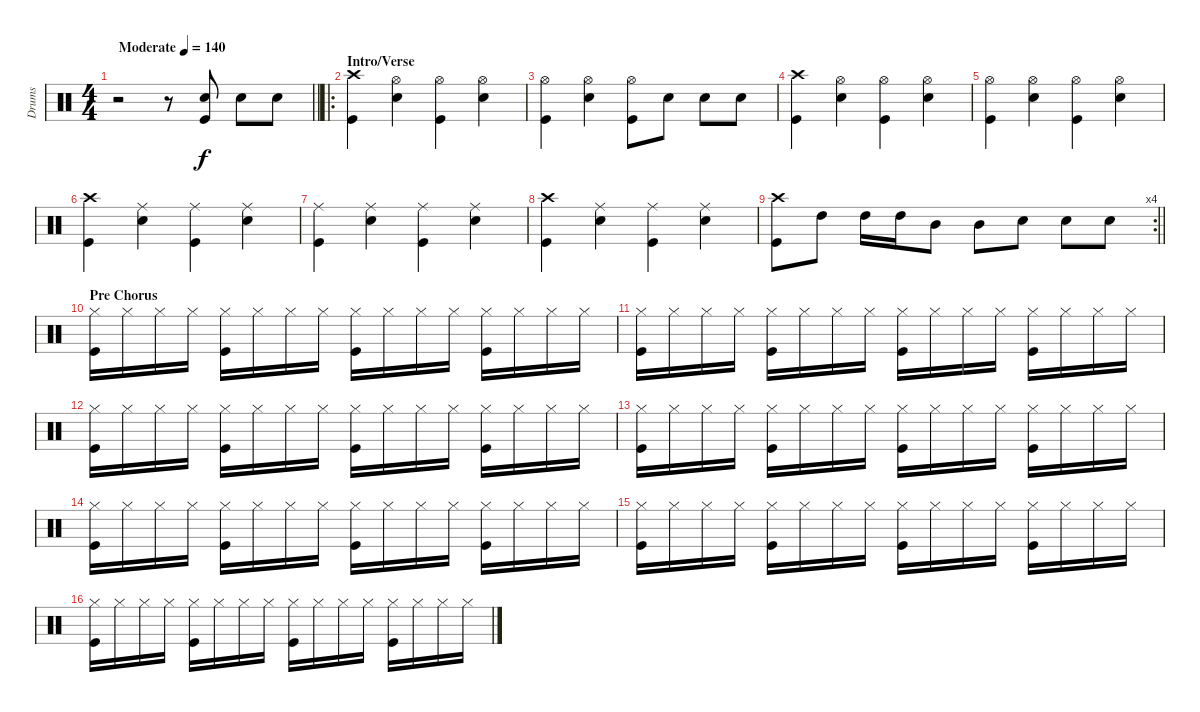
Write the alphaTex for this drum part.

\track ("Drums" "Drums") {instrument percussion}
\staff {score}
\articulation defaults
\ts (4 4)
\tempo (140 "Moderate")
\clef neutral
\barLineRight lightlight
\ks c
r.2{dy f} r.8 ("Snare (hit) 2" "Kick (hit)").8 "Snare (hit) 2".8 "Snare (hit) 2".8 |
\ro
\section ("" "Intro/Verse")
("Crash high (hit)" "Kick (hit)").4 ("Hi-Hat (open)" "Snare (hit) 2").4 ("Hi-Hat (open)" "Kick (hit)").4 ("Hi-Hat (open)" "Snare (hit) 2").4 |
("Hi-Hat (open)" "Kick (hit)").4 ("Hi-Hat (open)" "Snare (hit) 2").4 ("Hi-Hat (open)" "Kick (hit)").8 "Snare (hit) 2".8 "Snare (hit) 2".8 "Snare (hit) 2".8 |
("Crash high (hit)" "Kick (hit)").4 ("Hi-Hat (open)" "Snare (hit) 2").4 ("Hi-Hat (open)" "Kick (hit)").4 ("Hi-Hat (open)" "Snare (hit) 2").4 |
("Hi-Hat (open)" "Kick (hit)").4 ("Hi-Hat (open)" "Snare (hit) 2").4 ("Hi-Hat (open)" "Kick (hit)").4 ("Hi-Hat (open)" "Snare (hit) 2").4 |
("Crash high (hit)" "Kick (hit)").4 ("Ride (middle)" "Snare (hit) 2").4 ("Ride (middle)" "Kick (hit)").4 ("Ride (middle)" "Snare (hit) 2").4 |
("Ride (middle)" "Kick (hit)").4 ("Ride (middle)" "Snare (hit) 2").4 ("Ride (middle)" "Kick (hit)").4 ("Ride (middle)" "Snare (hit) 2").4 |
("Crash high (hit)" "Kick (hit)").4 ("Ride (middle)" "Snare (hit) 2").4 ("Ride (middle)" "Kick (hit)").4 ("Ride (middle)" "Snare (hit) 2").4 |
\rc 4
\barLineRight lightlight
("Crash high (hit)" "Kick (hit)").8 "High Tom (hit)".8 "High Tom (hit)".16 "High Tom (hit)".16 "Mid Tom (hit)".8 "Mid Tom (hit)".8 "Snare (hit) 2".8 "Snare (hit) 2".8 "Snare (hit) 2".8 |
\section ("" "Pre Chorus")
("Hi-Hat (closed)" "Kick (hit)").16 "Hi-Hat (closed)".16 "Hi-Hat (closed)".16 "Hi-Hat (closed)".16 ("Hi-Hat (closed)" "Kick (hit)").16 "Hi-Hat (closed)".16 "Hi-Hat (closed)".16 "Hi-Hat (closed)".16 ("Hi-Hat (closed)" "Kick (hit)").16 "Hi-Hat (closed)".16 "Hi-Hat (closed)".16 "Hi-Hat (closed)".16 ("Hi-Hat (closed)" "Kick (hit)").16 "Hi-Hat (closed)".16 "Hi-Hat (closed)".16 "Hi-Hat (closed)".16 |
("Hi-Hat (closed)" "Kick (hit)").16 "Hi-Hat (closed)".16 "Hi-Hat (closed)".16 "Hi-Hat (closed)".16 ("Hi-Hat (closed)" "Kick (hit)").16 "Hi-Hat (closed)".16 "Hi-Hat (closed)".16 "Hi-Hat (closed)".16 ("Hi-Hat (closed)" "Kick (hit)").16 "Hi-Hat (closed)".16 "Hi-Hat (closed)".16 "Hi-Hat (closed)".16 ("Hi-Hat (closed)" "Kick (hit)").16 "Hi-Hat (closed)".16 "Hi-Hat (closed)".16 "Hi-Hat (closed)".16 |
("Hi-Hat (closed)" "Kick (hit)").16 "Hi-Hat (closed)".16 "Hi-Hat (closed)".16 "Hi-Hat (closed)".16 ("Hi-Hat (closed)" "Kick (hit)").16 "Hi-Hat (closed)".16 "Hi-Hat (closed)".16 "Hi-Hat (closed)".16 ("Hi-Hat (closed)" "Kick (hit)").16 "Hi-Hat (closed)".16 "Hi-Hat (closed)".16 "Hi-Hat (closed)".16 ("Hi-Hat (closed)" "Kick (hit)").16 "Hi-Hat (closed)".16 "Hi-Hat (closed)".16 "Hi-Hat (closed)".16 |
("Hi-Hat (closed)" "Kick (hit)").16 "Hi-Hat (closed)".16 "Hi-Hat (closed)".16 "Hi-Hat (closed)".16 ("Hi-Hat (closed)" "Kick (hit)").16 "Hi-Hat (closed)".16 "Hi-Hat (closed)".16 "Hi-Hat (closed)".16 ("Hi-Hat (closed)" "Kick (hit)").16 "Hi-Hat (closed)".16 "Hi-Hat (closed)".16 "Hi-Hat (closed)".16 ("Hi-Hat (closed)" "Kick (hit)").16 "Hi-Hat (closed)".16 "Hi-Hat (closed)".16 "Hi-Hat (closed)".16 |
("Hi-Hat (closed)" "Kick (hit)").16 "Hi-Hat (closed)".16 "Hi-Hat (closed)".16 "Hi-Hat (closed)".16 ("Hi-Hat (closed)" "Kick (hit)").16 "Hi-Hat (closed)".16 "Hi-Hat (closed)".16 "Hi-Hat (closed)".16 ("Hi-Hat (closed)" "Kick (hit)").16 "Hi-Hat (closed)".16 "Hi-Hat (closed)".16 "Hi-Hat (closed)".16 ("Hi-Hat (closed)" "Kick (hit)").16 "Hi-Hat (closed)".16 "Hi-Hat (closed)".16 "Hi-Hat (closed)".16 |
("Hi-Hat (closed)" "Kick (hit)").16 "Hi-Hat (closed)".16 "Hi-Hat (closed)".16 "Hi-Hat (closed)".16 ("Hi-Hat (closed)" "Kick (hit)").16 "Hi-Hat (closed)".16 "Hi-Hat (closed)".16 "Hi-Hat (closed)".16 ("Hi-Hat (closed)" "Kick (hit)").16 "Hi-Hat (closed)".16 "Hi-Hat (closed)".16 "Hi-Hat (closed)".16 ("Hi-Hat (closed)" "Kick (hit)").16 "Hi-Hat (closed)".16 "Hi-Hat (closed)".16 "Hi-Hat (closed)".16 |
("Hi-Hat (closed)" "Kick (hit)").16 "Hi-Hat (closed)".16 "Hi-Hat (closed)".16 "Hi-Hat (closed)".16 ("Hi-Hat (closed)" "Kick (hit)").16 "Hi-Hat (closed)".16 "Hi-Hat (closed)".16 "Hi-Hat (closed)".16 ("Hi-Hat (closed)" "Kick (hit)").16 "Hi-Hat (closed)".16 "Hi-Hat (closed)".16 "Hi-Hat (closed)".16 ("Hi-Hat (closed)" "Kick (hit)").16 "Hi-Hat (closed)".16 "Hi-Hat (closed)".16 "Hi-Hat (closed)".16
